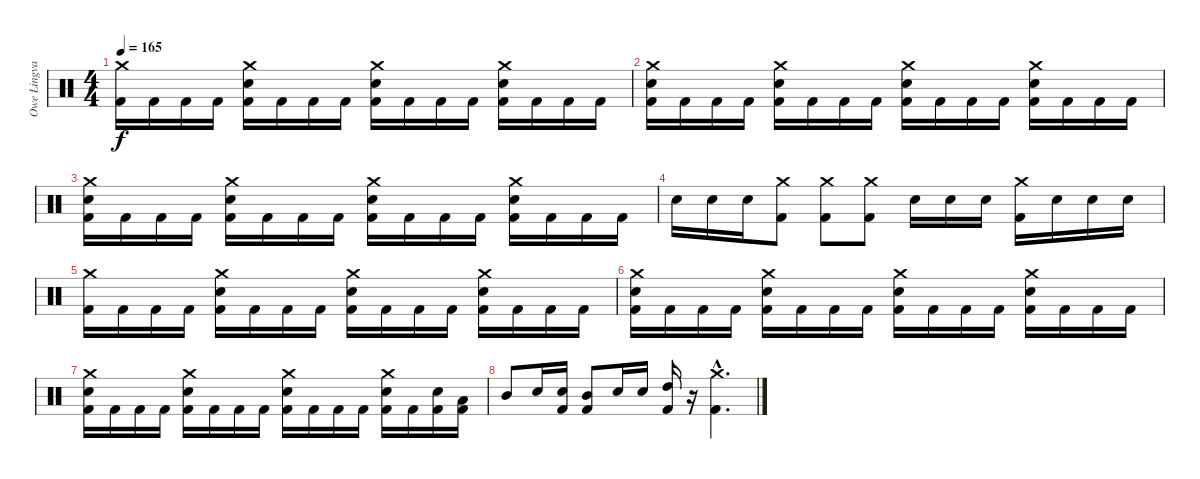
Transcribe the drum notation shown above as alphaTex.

\track ("Owe Lingvall" "Owe Lingva") {instrument percussion}
\staff {score}
\articulation defaults
\ts (4 4)
\tempo 165
\clef neutral
\ks c
("Crash medium (hit)" "Kick (hit) 2").16{dy f} "Kick (hit) 2".16 "Kick (hit) 2".16 "Kick (hit) 2".16 ("Crash medium (hit)" "Snare (hit) 2" "Kick (hit) 2").16 "Kick (hit) 2".16 "Kick (hit) 2".16 "Kick (hit) 2".16 ("Crash medium (hit)" "Snare (hit) 2" "Kick (hit) 2").16 "Kick (hit) 2".16 "Kick (hit) 2".16 "Kick (hit) 2".16 ("Crash medium (hit)" "Snare (hit) 2" "Kick (hit) 2").16 "Kick (hit) 2".16 "Kick (hit) 2".16 "Kick (hit) 2".16 |
("Crash medium (hit)" "Snare (hit) 2" "Kick (hit) 2").16 "Kick (hit) 2".16 "Kick (hit) 2".16 "Kick (hit) 2".16 ("Crash medium (hit)" "Snare (hit) 2" "Kick (hit) 2").16 "Kick (hit) 2".16 "Kick (hit) 2".16 "Kick (hit) 2".16 ("Crash medium (hit)" "Snare (hit) 2" "Kick (hit) 2").16 "Kick (hit) 2".16 "Kick (hit) 2".16 "Kick (hit) 2".16 ("Crash medium (hit)" "Snare (hit) 2" "Kick (hit) 2").16 "Kick (hit) 2".16 "Kick (hit) 2".16 "Kick (hit) 2".16 |
("Crash medium (hit)" "Snare (hit) 2" "Kick (hit) 2").16 "Kick (hit) 2".16 "Kick (hit) 2".16 "Kick (hit) 2".16 ("Crash medium (hit)" "Snare (hit) 2" "Kick (hit) 2").16 "Kick (hit) 2".16 "Kick (hit) 2".16 "Kick (hit) 2".16 ("Crash medium (hit)" "Snare (hit) 2" "Kick (hit) 2").16 "Kick (hit) 2".16 "Kick (hit) 2".16 "Kick (hit) 2".16 ("Crash medium (hit)" "Snare (hit) 2" "Kick (hit) 2").16 "Kick (hit) 2".16 "Kick (hit) 2".16 "Kick (hit) 2".16 |
"Snare (hit) 2".16 "Snare (hit) 2".16 "Snare (hit) 2".16 ("Crash medium (hit)" "Kick (hit) 2").8 ("Crash medium (hit)" "Kick (hit) 2").8 ("Crash medium (hit)" "Kick (hit) 2").8 "Snare (hit) 2".16 "Snare (hit) 2".16 "Snare (hit) 2".16 ("Crash medium (hit)" "Kick (hit) 2").16 "Snare (hit) 2".16 "Snare (hit) 2".16 "Snare (hit) 2".16 |
("Crash medium (hit)" "Kick (hit) 2").16 "Kick (hit) 2".16 "Kick (hit) 2".16 "Kick (hit) 2".16 ("Crash medium (hit)" "Snare (hit) 2" "Kick (hit) 2").16 "Kick (hit) 2".16 "Kick (hit) 2".16 "Kick (hit) 2".16 ("Crash medium (hit)" "Snare (hit) 2" "Kick (hit) 2").16 "Kick (hit) 2".16 "Kick (hit) 2".16 "Kick (hit) 2".16 ("Crash medium (hit)" "Snare (hit) 2" "Kick (hit) 2").16 "Kick (hit) 2".16 "Kick (hit) 2".16 "Kick (hit) 2".16 |
("Crash medium (hit)" "Snare (hit) 2" "Kick (hit) 2").16 "Kick (hit) 2".16 "Kick (hit) 2".16 "Kick (hit) 2".16 ("Crash medium (hit)" "Snare (hit) 2" "Kick (hit) 2").16 "Kick (hit) 2".16 "Kick (hit) 2".16 "Kick (hit) 2".16 ("Crash medium (hit)" "Snare (hit) 2" "Kick (hit) 2").16 "Kick (hit) 2".16 "Kick (hit) 2".16 "Kick (hit) 2".16 ("Crash medium (hit)" "Snare (hit) 2" "Kick (hit) 2").16 "Kick (hit) 2".16 "Kick (hit) 2".16 "Kick (hit) 2".16 |
("Crash medium (hit)" "Snare (hit) 2" "Kick (hit) 2").16 "Kick (hit) 2".16 "Kick (hit) 2".16 "Kick (hit) 2".16 ("Crash medium (hit)" "Snare (hit) 2" "Kick (hit) 2").16 "Kick (hit) 2".16 "Kick (hit) 2".16 "Kick (hit) 2".16 ("Crash medium (hit)" "Snare (hit) 2" "Kick (hit) 2").16 "Kick (hit) 2".16 "Kick (hit) 2".16 "Kick (hit) 2".16 ("Crash medium (hit)" "Snare (hit) 2" "Kick (hit) 2").16 "Kick (hit) 2".16 ("Snare (hit) 2" "Kick (hit) 2").16 ("Low Tom (hit)" "Kick (hit) 2").16 |
"Mid Tom (hit)".8 "Snare (hit) 2".16 ("Snare (hit) 2" "Kick (hit) 2").16 ("Mid Tom (hit)" "Kick (hit) 2").8 "Snare (hit) 2".16 "Snare (hit) 2".16 ("High Tom (hit)" "Kick (hit) 2").16 r.16 ("Crash medium (hit)"{hac} "Kick (hit) 2"{hac}).4{d}
